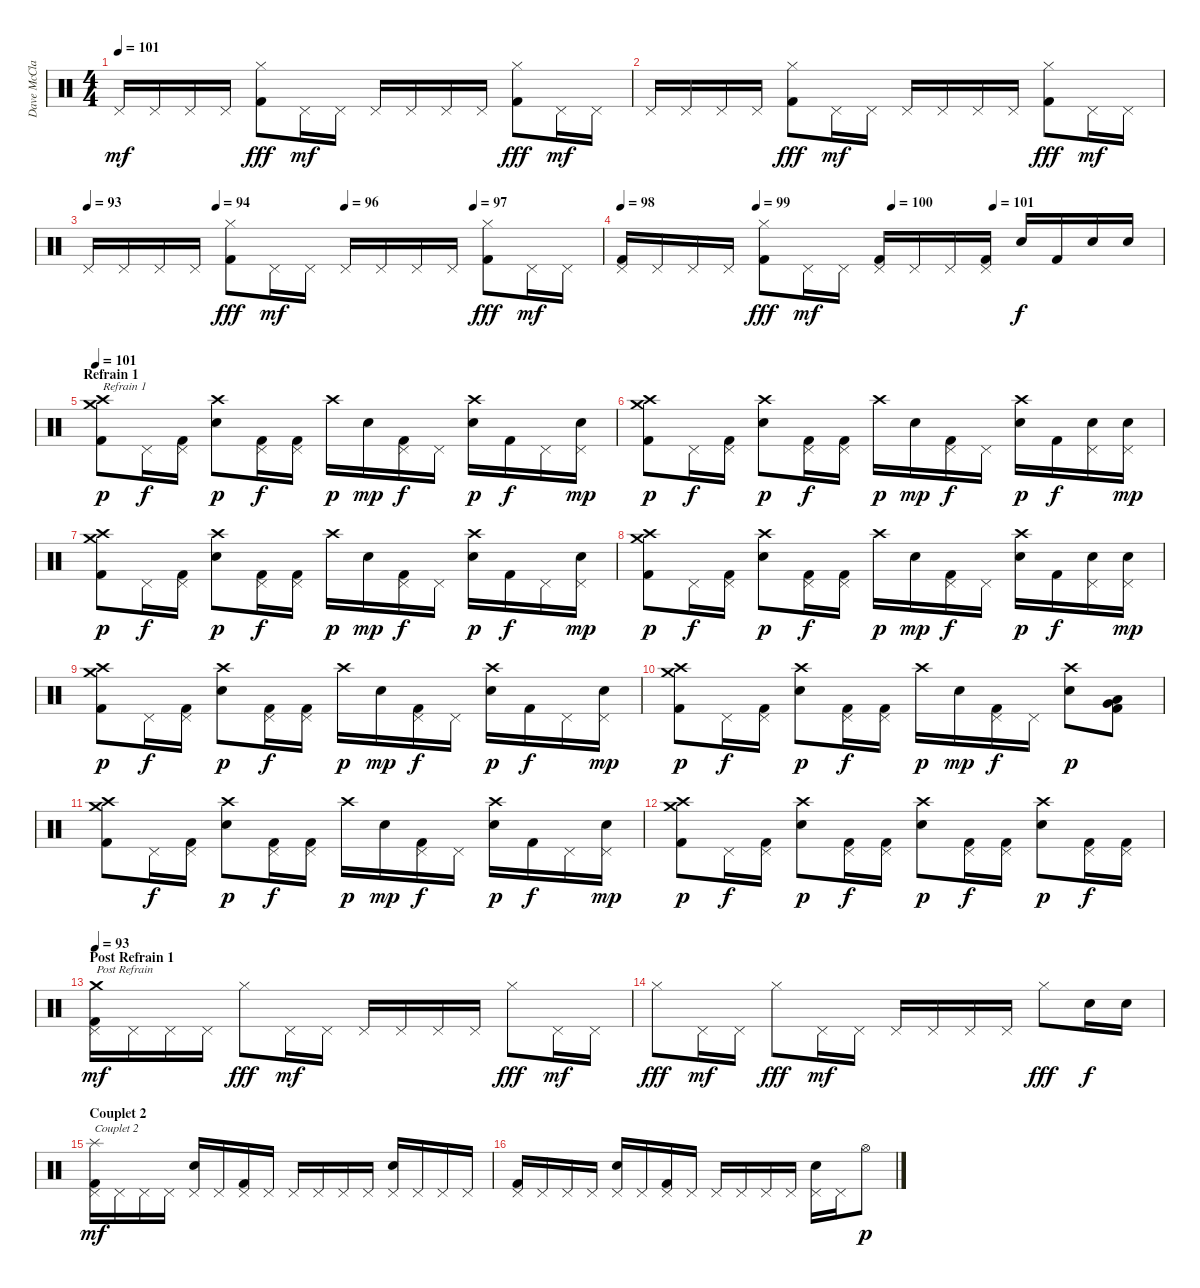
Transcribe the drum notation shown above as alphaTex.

\track ("Dave McClain" "Dave McCla") {instrument percussion}
\staff {score}
\articulation defaults
\ts (4 4)
\tempo 101
\clef neutral
\ks c "Pedal Hi-Hat (hit)".16{dy mf} "Pedal Hi-Hat (hit)".16 "Pedal Hi-Hat (hit)".16 "Pedal Hi-Hat (hit)".16
("Hi-Hat (closed)" "Kick (hit) 2").8{dy fff} "Pedal Hi-Hat (hit)".16{dy mf} "Pedal Hi-Hat (hit)".16 "Pedal Hi-Hat (hit)".16 "Pedal Hi-Hat (hit)".16 "Pedal Hi-Hat (hit)".16 "Pedal Hi-Hat (hit)".16 ("Hi-Hat (closed)" "Kick (hit) 2").8{dy fff} "Pedal Hi-Hat (hit)".16{dy mf} "Pedal Hi-Hat (hit)".16 |
"Pedal Hi-Hat (hit)".16 "Pedal Hi-Hat (hit)".16 "Pedal Hi-Hat (hit)".16 "Pedal Hi-Hat (hit)".16 ("Hi-Hat (closed)" "Kick (hit) 2").8{dy fff} "Pedal Hi-Hat (hit)".16{dy mf} "Pedal Hi-Hat (hit)".16 "Pedal Hi-Hat (hit)".16 "Pedal Hi-Hat (hit)".16 "Pedal Hi-Hat (hit)".16 "Pedal Hi-Hat (hit)".16 ("Hi-Hat (closed)" "Kick (hit) 2").8{dy fff} "Pedal Hi-Hat (hit)".16{dy mf} "Pedal Hi-Hat (hit)".16 |
\tempo 93
\tempo (94 0.25)
\tempo (96 0.5)
\tempo (97 0.75)
"Pedal Hi-Hat (hit)".16 "Pedal Hi-Hat (hit)".16 "Pedal Hi-Hat (hit)".16 "Pedal Hi-Hat (hit)".16 ("Hi-Hat (closed)" "Kick (hit) 2").8{dy fff} "Pedal Hi-Hat (hit)".16{dy mf} "Pedal Hi-Hat (hit)".16 "Pedal Hi-Hat (hit)".16 "Pedal Hi-Hat (hit)".16 "Pedal Hi-Hat (hit)".16 "Pedal Hi-Hat (hit)".16 ("Hi-Hat (closed)" "Kick (hit) 2").8{dy fff} "Pedal Hi-Hat (hit)".16{dy mf} "Pedal Hi-Hat (hit)".16 |
\tempo 98
\tempo (99 0.25)
\tempo (100 0.5)
\tempo (101 0.6875)
("Pedal Hi-Hat (hit)" "Kick (hit) 2").16 "Pedal Hi-Hat (hit)".16 "Pedal Hi-Hat (hit)".16 "Pedal Hi-Hat (hit)".16 ("Hi-Hat (closed)" "Kick (hit) 2").8{dy fff} "Pedal Hi-Hat (hit)".16{dy mf} "Pedal Hi-Hat (hit)".16 ("Pedal Hi-Hat (hit)" "Kick (hit) 2").16 "Pedal Hi-Hat (hit)".16 "Pedal Hi-Hat (hit)".16 ("Pedal Hi-Hat (hit)" "Kick (hit) 2").16 "Electric Snare (hit)".16{dy f} "Kick (hit) 2".16 "Electric Snare (hit)".16 "Electric Snare (hit)".16 |
\section ("" "Refrain 1")
\tempo 101
("Crash medium (hit)" "Crash high (hit)" "Kick (hit) 2").8{txt "Refrain 1" dy p} "Pedal Hi-Hat (hit)".16{dy f} ("Pedal Hi-Hat (hit)" "Kick (hit) 2").16 ("Crash high (hit)" "Electric Snare (hit)").8{dy p} ("Pedal Hi-Hat (hit)" "Kick (hit) 2").16{dy f} ("Pedal Hi-Hat (hit)" "Kick (hit) 2").16 "Crash high (hit)".16{dy p} "Electric Snare (hit)".16{dy mp} ("Pedal Hi-Hat (hit)" "Kick (hit) 2").16{dy f} "Pedal Hi-Hat (hit)".16 ("Crash high (hit)" "Electric Snare (hit)").16{dy p} "Kick (hit) 2".16{dy f} "Pedal Hi-Hat (hit)".16 ("Electric Snare (hit)" "Pedal Hi-Hat (hit)").16{dy mp} |
("Crash medium (hit)" "Crash high (hit)" "Kick (hit) 2").8{dy p} "Pedal Hi-Hat (hit)".16{dy f} ("Pedal Hi-Hat (hit)" "Kick (hit) 2").16 ("Crash high (hit)" "Electric Snare (hit)").8{dy p} ("Pedal Hi-Hat (hit)" "Kick (hit) 2").16{dy f} ("Pedal Hi-Hat (hit)" "Kick (hit) 2").16 "Crash high (hit)".16{dy p} "Electric Snare (hit)".16{dy mp} ("Pedal Hi-Hat (hit)" "Kick (hit) 2").16{dy f} "Pedal Hi-Hat (hit)".16 ("Crash high (hit)" "Electric Snare (hit)").16{dy p} "Kick (hit) 2".16{dy f} ("Electric Snare (hit)" "Pedal Hi-Hat (hit)").16 ("Electric Snare (hit)" "Pedal Hi-Hat (hit)").16{dy mp} |
("Crash medium (hit)" "Crash high (hit)" "Kick (hit) 2").8{dy p} "Pedal Hi-Hat (hit)".16{dy f} ("Pedal Hi-Hat (hit)" "Kick (hit) 2").16 ("Crash high (hit)" "Electric Snare (hit)").8{dy p} ("Pedal Hi-Hat (hit)" "Kick (hit) 2").16{dy f} ("Pedal Hi-Hat (hit)" "Kick (hit) 2").16 "Crash high (hit)".16{dy p} "Electric Snare (hit)".16{dy mp} ("Pedal Hi-Hat (hit)" "Kick (hit) 2").16{dy f} "Pedal Hi-Hat (hit)".16 ("Crash high (hit)" "Electric Snare (hit)").16{dy p} "Kick (hit) 2".16{dy f} "Pedal Hi-Hat (hit)".16 ("Electric Snare (hit)" "Pedal Hi-Hat (hit)").16{dy mp} |
("Crash medium (hit)" "Crash high (hit)" "Kick (hit) 2").8{dy p} "Pedal Hi-Hat (hit)".16{dy f} ("Pedal Hi-Hat (hit)" "Kick (hit) 2").16 ("Crash high (hit)" "Electric Snare (hit)").8{dy p} ("Pedal Hi-Hat (hit)" "Kick (hit) 2").16{dy f} ("Pedal Hi-Hat (hit)" "Kick (hit) 2").16 "Crash high (hit)".16{dy p} "Electric Snare (hit)".16{dy mp} ("Pedal Hi-Hat (hit)" "Kick (hit) 2").16{dy f} "Pedal Hi-Hat (hit)".16 ("Crash high (hit)" "Electric Snare (hit)").16{dy p} "Kick (hit) 2".16{dy f} ("Electric Snare (hit)" "Pedal Hi-Hat (hit)").16 ("Electric Snare (hit)" "Pedal Hi-Hat (hit)").16{dy mp} |
("Crash medium (hit)" "Crash high (hit)" "Kick (hit) 2").8{dy p} "Pedal Hi-Hat (hit)".16{dy f} ("Pedal Hi-Hat (hit)" "Kick (hit) 2").16 ("Crash high (hit)" "Electric Snare (hit)").8{dy p} ("Pedal Hi-Hat (hit)" "Kick (hit) 2").16{dy f} ("Pedal Hi-Hat (hit)" "Kick (hit) 2").16 "Crash high (hit)".16{dy p} "Electric Snare (hit)".16{dy mp} ("Pedal Hi-Hat (hit)" "Kick (hit) 2").16{dy f} "Pedal Hi-Hat (hit)".16 ("Crash high (hit)" "Electric Snare (hit)").16{dy p} "Kick (hit) 2".16{dy f} "Pedal Hi-Hat (hit)".16 ("Electric Snare (hit)" "Pedal Hi-Hat (hit)").16{dy mp} |
("Crash medium (hit)" "Crash high (hit)" "Kick (hit) 2").8{dy p} "Pedal Hi-Hat (hit)".16{dy f} ("Pedal Hi-Hat (hit)" "Kick (hit) 2").16 ("Crash high (hit)" "Electric Snare (hit)").8{dy p} ("Pedal Hi-Hat (hit)" "Kick (hit) 2").16{dy f} ("Pedal Hi-Hat (hit)" "Kick (hit) 2").16 "Crash high (hit)".16{dy p} "Electric Snare (hit)".16{dy mp} ("Pedal Hi-Hat (hit)" "Kick (hit) 2").16{dy f} "Pedal Hi-Hat (hit)".16 ("Crash high (hit)" "Electric Snare (hit)").8{dy p} ("Very Low Tom (hit)" "Low Tom (hit)" "Kick (hit) 2").8 |
("Crash medium (hit)" "Crash high (hit)" "Kick (hit) 2").8 "Pedal Hi-Hat (hit)".16{dy f} ("Pedal Hi-Hat (hit)" "Kick (hit) 2").16 ("Crash high (hit)" "Electric Snare (hit)").8{dy p} ("Pedal Hi-Hat (hit)" "Kick (hit) 2").16{dy f} ("Pedal Hi-Hat (hit)" "Kick (hit) 2").16 "Crash high (hit)".16{dy p} "Electric Snare (hit)".16{dy mp} ("Pedal Hi-Hat (hit)" "Kick (hit) 2").16{dy f} "Pedal Hi-Hat (hit)".16 ("Crash high (hit)" "Electric Snare (hit)").16{dy p} "Kick (hit) 2".16{dy f} "Pedal Hi-Hat (hit)".16 ("Electric Snare (hit)" "Pedal Hi-Hat (hit)").16{dy mp} |
("Crash medium (hit)" "Crash high (hit)" "Kick (hit) 2").8{dy p} "Pedal Hi-Hat (hit)".16{dy f} ("Pedal Hi-Hat (hit)" "Kick (hit) 2").16 ("Crash high (hit)" "Electric Snare (hit)").8{dy p} ("Pedal Hi-Hat (hit)" "Kick (hit) 2").16{dy f} ("Pedal Hi-Hat (hit)" "Kick (hit) 2").16 ("Crash high (hit)" "Electric Snare (hit)").8{dy p} ("Pedal Hi-Hat (hit)" "Kick (hit) 2").16{dy f} ("Pedal Hi-Hat (hit)" "Kick (hit) 2").16 ("Crash high (hit)" "Electric Snare (hit)").8{dy p} ("Pedal Hi-Hat (hit)" "Kick (hit) 2").16{dy f} ("Pedal Hi-Hat (hit)" "Kick (hit) 2").16 |
\section ("" "Post Refrain 1")
\tempo 93
("Crash medium (hit)" "Pedal Hi-Hat (hit)" "Kick (hit) 2").16{txt "Post Refrain " dy mf} "Pedal Hi-Hat (hit)".16 "Pedal Hi-Hat (hit)".16 "Pedal Hi-Hat (hit)".16 "Hi-Hat (closed)".8{dy fff} "Pedal Hi-Hat (hit)".16{dy mf} "Pedal Hi-Hat (hit)".16 "Pedal Hi-Hat (hit)".16 "Pedal Hi-Hat (hit)".16 "Pedal Hi-Hat (hit)".16 "Pedal Hi-Hat (hit)".16 "Hi-Hat (closed)".8{dy fff} "Pedal Hi-Hat (hit)".16{dy mf} "Pedal Hi-Hat (hit)".16 |
"Hi-Hat (closed)".8{dy fff} "Pedal Hi-Hat (hit)".16{dy mf} "Pedal Hi-Hat (hit)".16 "Hi-Hat (closed)".8{dy fff} "Pedal Hi-Hat (hit)".16{dy mf} "Pedal Hi-Hat (hit)".16 "Pedal Hi-Hat (hit)".16 "Pedal Hi-Hat (hit)".16 "Pedal Hi-Hat (hit)".16 "Pedal Hi-Hat (hit)".16 "Hi-Hat (closed)".8{dy fff} "Electric Snare (hit)".16{dy f} "Electric Snare (hit)".16 |
\section ("" "Couplet 2")
("Splash (hit)" "Pedal Hi-Hat (hit)" "Kick (hit) 2").16{txt "Couplet 2" dy mf} "Pedal Hi-Hat (hit)".16 "Pedal Hi-Hat (hit)".16 "Pedal Hi-Hat (hit)".16 ("Electric Snare (hit)" "Pedal Hi-Hat (hit)").16 "Pedal Hi-Hat (hit)".16 ("Pedal Hi-Hat (hit)" "Kick (hit) 2").16 "Pedal Hi-Hat (hit)".16 "Pedal Hi-Hat (hit)".16 "Pedal Hi-Hat (hit)".16 "Pedal Hi-Hat (hit)".16 "Pedal Hi-Hat (hit)".16 ("Electric Snare (hit)" "Pedal Hi-Hat (hit)").16 "Pedal Hi-Hat (hit)".16 "Pedal Hi-Hat (hit)".16 "Pedal Hi-Hat (hit)".16 |
("Pedal Hi-Hat (hit)" "Kick (hit) 2").16 "Pedal Hi-Hat (hit)".16 "Pedal Hi-Hat (hit)".16 "Pedal Hi-Hat (hit)".16 ("Electric Snare (hit)" "Pedal Hi-Hat (hit)").16 "Pedal Hi-Hat (hit)".16 ("Pedal Hi-Hat (hit)" "Kick (hit) 2").16 "Pedal Hi-Hat (hit)".16 "Pedal Hi-Hat (hit)".16 "Pedal Hi-Hat (hit)".16 "Pedal Hi-Hat (hit)".16 "Pedal Hi-Hat (hit)".16 ("Electric Snare (hit)" "Pedal Hi-Hat (hit)").16 "Pedal Hi-Hat (hit)".16 "Hi-Hat (open)".8{dy p}
